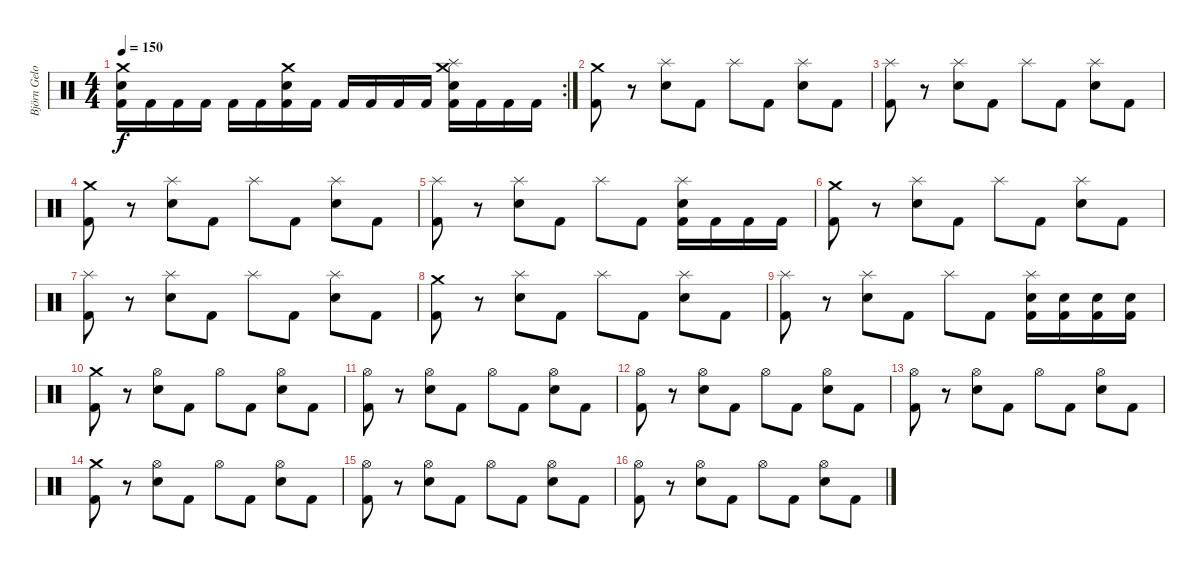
\track ("Björn Gelotte" "Björn Gelo") {instrument percussion}
\staff {score}
\articulation defaults
\rc 2
\ts (4 4)
\tempo 150
\clef neutral
\ks c
("Crash medium (hit)" "Electric Snare (hit)" "Kick (hit) 2").16{dy f} "Kick (hit) 2".16 "Kick (hit) 2".16 "Kick (hit) 2".16 "Kick (hit) 2".16 "Kick (hit) 2".16 ("Crash medium (hit)" "Electric Snare (hit)" "Kick (hit) 2").16 "Kick (hit) 2".16 "Kick (hit) 2".16 "Kick (hit) 2".16 "Kick (hit) 2".16 "Kick (hit) 2".16 ("Crash medium (hit)" "Splash (hit)" "Electric Snare (hit)" "Kick (hit) 2").16 "Kick (hit) 2".16 "Kick (hit) 2".16 "Kick (hit) 2".16 |
("Crash medium (hit)" "Kick (hit) 2").8 r.8 ("Splash (hit)" "Electric Snare (hit)").8 "Kick (hit) 2".8 "Splash (hit)".8 "Kick (hit) 2".8 ("Splash (hit)" "Electric Snare (hit)").8 "Kick (hit) 2".8 |
("Splash (hit)" "Kick (hit) 2").8 r.8 ("Splash (hit)" "Electric Snare (hit)").8 "Kick (hit) 2".8 "Splash (hit)".8 "Kick (hit) 2".8 ("Splash (hit)" "Electric Snare (hit)").8 "Kick (hit) 2".8 |
("Crash medium (hit)" "Kick (hit) 2").8 r.8 ("Splash (hit)" "Electric Snare (hit)").8 "Kick (hit) 2".8 "Splash (hit)".8 "Kick (hit) 2".8 ("Splash (hit)" "Electric Snare (hit)").8 "Kick (hit) 2".8 |
("Splash (hit)" "Kick (hit) 2").8 r.8 ("Splash (hit)" "Electric Snare (hit)").8 "Kick (hit) 2".8 "Splash (hit)".8 "Kick (hit) 2".8 ("Splash (hit)" "Electric Snare (hit)" "Kick (hit) 2").16 "Kick (hit) 2".16 "Kick (hit) 2".16 "Kick (hit) 2".16 |
("Crash medium (hit)" "Kick (hit) 2").8 r.8 ("Splash (hit)" "Electric Snare (hit)").8 "Kick (hit) 2".8 "Splash (hit)".8 "Kick (hit) 2".8 ("Splash (hit)" "Electric Snare (hit)").8 "Kick (hit) 2".8 |
("Splash (hit)" "Kick (hit) 2").8 r.8 ("Splash (hit)" "Electric Snare (hit)").8 "Kick (hit) 2".8 "Splash (hit)".8 "Kick (hit) 2".8 ("Splash (hit)" "Electric Snare (hit)").8 "Kick (hit) 2".8 |
("Crash medium (hit)" "Kick (hit) 2").8 r.8 ("Splash (hit)" "Electric Snare (hit)").8 "Kick (hit) 2".8 "Splash (hit)".8 "Kick (hit) 2".8 ("Splash (hit)" "Electric Snare (hit)").8 "Kick (hit) 2".8 |
("Splash (hit)" "Kick (hit) 2").8 r.8 ("Splash (hit)" "Electric Snare (hit)").8 "Kick (hit) 2".8 "Splash (hit)".8 "Kick (hit) 2".8 ("Splash (hit)" "Electric Snare (hit)" "Kick (hit) 2").16 ("Electric Snare (hit)" "Kick (hit) 2").16 ("Electric Snare (hit)" "Kick (hit) 2").16 ("Electric Snare (hit)" "Kick (hit) 2").16 |
("Crash medium (hit)" "Kick (hit) 2").8 r.8 ("Hi-Hat (open)" "Electric Snare (hit)").8 "Kick (hit) 2".8 "Hi-Hat (open)".8 "Kick (hit) 2".8 ("Hi-Hat (open)" "Electric Snare (hit)").8 "Kick (hit) 2".8 |
("Hi-Hat (open)" "Kick (hit) 2").8 r.8 ("Hi-Hat (open)" "Electric Snare (hit)").8 "Kick (hit) 2".8 "Hi-Hat (open)".8 "Kick (hit) 2".8 ("Hi-Hat (open)" "Electric Snare (hit)").8 "Kick (hit) 2".8 |
("Hi-Hat (open)" "Kick (hit) 2").8 r.8 ("Hi-Hat (open)" "Electric Snare (hit)").8 "Kick (hit) 2".8 "Hi-Hat (open)".8 "Kick (hit) 2".8 ("Hi-Hat (open)" "Electric Snare (hit)").8 "Kick (hit) 2".8 |
("Hi-Hat (open)" "Kick (hit) 2").8 r.8 ("Hi-Hat (open)" "Electric Snare (hit)").8 "Kick (hit) 2".8 "Hi-Hat (open)".8 "Kick (hit) 2".8 ("Hi-Hat (open)" "Electric Snare (hit)").8 "Kick (hit) 2".8 |
("Crash medium (hit)" "Kick (hit) 2").8 r.8 ("Hi-Hat (open)" "Electric Snare (hit)").8 "Kick (hit) 2".8 "Hi-Hat (open)".8 "Kick (hit) 2".8 ("Hi-Hat (open)" "Electric Snare (hit)").8 "Kick (hit) 2".8 |
("Hi-Hat (open)" "Kick (hit) 2").8 r.8 ("Hi-Hat (open)" "Electric Snare (hit)").8 "Kick (hit) 2".8 "Hi-Hat (open)".8 "Kick (hit) 2".8 ("Hi-Hat (open)" "Electric Snare (hit)").8 "Kick (hit) 2".8 |
("Hi-Hat (open)" "Kick (hit) 2").8 r.8 ("Hi-Hat (open)" "Electric Snare (hit)").8 "Kick (hit) 2".8 "Hi-Hat (open)".8 "Kick (hit) 2".8 ("Hi-Hat (open)" "Electric Snare (hit)").8 "Kick (hit) 2".8
